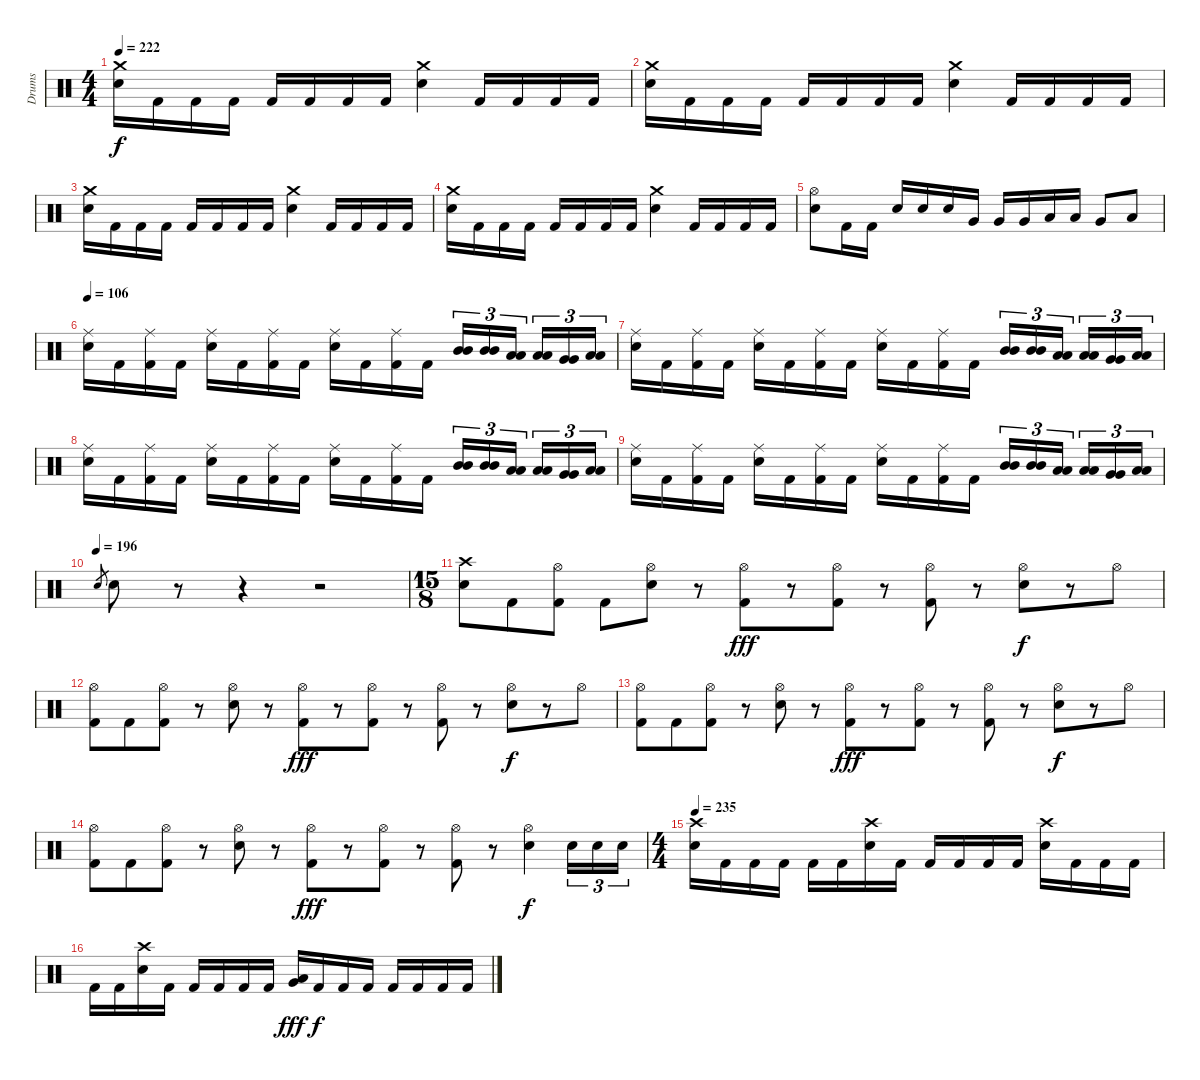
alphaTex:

\track ("Drums" "Drums") {instrument percussion}
\staff {score}
\articulation defaults
\ts (4 4)
\tempo 222
\clef neutral
\ks c
("Crash medium (hit)" "Snare (hit) 2").16{dy f} "Kick (hit) 2".16 "Kick (hit) 2".16 "Kick (hit) 2".16 "Kick (hit) 2".16 "Kick (hit) 2".16 "Kick (hit) 2".16 "Kick (hit) 2".16 ("Crash medium (hit)" "Snare (hit) 2").4 "Kick (hit) 2".16 "Kick (hit) 2".16 "Kick (hit) 2".16 "Kick (hit) 2".16 |
("Crash medium (hit)" "Snare (hit) 2").16 "Kick (hit) 2".16 "Kick (hit) 2".16 "Kick (hit) 2".16 "Kick (hit) 2".16 "Kick (hit) 2".16 "Kick (hit) 2".16 "Kick (hit) 2".16 ("Crash medium (hit)" "Snare (hit) 2").4 "Kick (hit) 2".16 "Kick (hit) 2".16 "Kick (hit) 2".16 "Kick (hit) 2".16 |
("Crash medium (hit)" "Snare (hit) 2").16 "Kick (hit) 2".16 "Kick (hit) 2".16 "Kick (hit) 2".16 "Kick (hit) 2".16 "Kick (hit) 2".16 "Kick (hit) 2".16 "Kick (hit) 2".16 ("Crash medium (hit)" "Snare (hit) 2").4 "Kick (hit) 2".16 "Kick (hit) 2".16 "Kick (hit) 2".16 "Kick (hit) 2".16 |
("Crash medium (hit)" "Snare (hit) 2").16 "Kick (hit) 2".16 "Kick (hit) 2".16 "Kick (hit) 2".16 "Kick (hit) 2".16 "Kick (hit) 2".16 "Kick (hit) 2".16 "Kick (hit) 2".16 ("Crash medium (hit)" "Snare (hit) 2").4 "Kick (hit) 2".16 "Kick (hit) 2".16 "Kick (hit) 2".16 "Kick (hit) 2".16 |
("Hi-Hat (open)" "Snare (hit) 2").8 "Kick (hit) 2".16 "Kick (hit) 2".16 "Snare (hit) 2".16 "Snare (hit) 2".16 "Snare (hit) 2".16 "Very Low Tom (hit)".16 "Very Low Tom (hit)".16 "Very Low Tom (hit)".16 "Low Floor Tom (hit)".16 "Low Floor Tom (hit)".16 "Very Low Tom (hit)".8 "Low Floor Tom (hit)".8 |
\tempo 106
("Ride (middle)" "Electric Snare (hit)").16 "Kick (hit) 2".16 ("Ride (middle)" "Kick (hit) 2").16 "Kick (hit) 2".16 ("Ride (middle)" "Electric Snare (hit)").16 "Kick (hit) 2".16 ("Ride (middle)" "Kick (hit) 2").16 "Kick (hit) 2".16 ("Ride (middle)" "Electric Snare (hit)").16 "Kick (hit) 2".16 ("Ride (middle)" "Kick (hit) 2").16 "Kick (hit) 2".16 ("Mid Tom (hit)" "Mid Tom (hit)").16{tu (3 2)} ("Mid Tom (hit)" "Mid Tom (hit)").16{tu (3 2)} ("Low Tom (hit)" "Low Tom (hit)").16{tu (3 2) beam splitsecondary} ("Low Tom (hit)" "Low Tom (hit)").16{tu (3 2)} ("Very Low Tom (hit)" "Very Low Tom (hit)").16{tu (3 2)} ("Low Floor Tom (hit)" "Low Floor Tom (hit)").16{tu (3 2)} |
("Ride (middle)" "Electric Snare (hit)").16 "Kick (hit) 2".16 ("Ride (middle)" "Kick (hit) 2").16 "Kick (hit) 2".16 ("Ride (middle)" "Electric Snare (hit)").16 "Kick (hit) 2".16 ("Ride (middle)" "Kick (hit) 2").16 "Kick (hit) 2".16 ("Ride (middle)" "Electric Snare (hit)").16 "Kick (hit) 2".16 ("Ride (middle)" "Kick (hit) 2").16 "Kick (hit) 2".16 ("Mid Tom (hit)" "Mid Tom (hit)").16{tu (3 2)} ("Mid Tom (hit)" "Mid Tom (hit)").16{tu (3 2)} ("Low Tom (hit)" "Low Tom (hit)").16{tu (3 2) beam splitsecondary} ("Low Tom (hit)" "Low Tom (hit)").16{tu (3 2)} ("Very Low Tom (hit)" "Very Low Tom (hit)").16{tu (3 2)} ("Low Floor Tom (hit)" "Low Floor Tom (hit)").16{tu (3 2)} |
("Ride (middle)" "Electric Snare (hit)").16 "Kick (hit) 2".16 ("Ride (middle)" "Kick (hit) 2").16 "Kick (hit) 2".16 ("Ride (middle)" "Electric Snare (hit)").16 "Kick (hit) 2".16 ("Ride (middle)" "Kick (hit) 2").16 "Kick (hit) 2".16 ("Ride (middle)" "Electric Snare (hit)").16 "Kick (hit) 2".16 ("Ride (middle)" "Kick (hit) 2").16 "Kick (hit) 2".16 ("Mid Tom (hit)" "Mid Tom (hit)").16{tu (3 2)} ("Mid Tom (hit)" "Mid Tom (hit)").16{tu (3 2)} ("Low Tom (hit)" "Low Tom (hit)").16{tu (3 2) beam splitsecondary} ("Low Tom (hit)" "Low Tom (hit)").16{tu (3 2)} ("Very Low Tom (hit)" "Very Low Tom (hit)").16{tu (3 2)} ("Low Floor Tom (hit)" "Low Floor Tom (hit)").16{tu (3 2)} |
("Ride (middle)" "Electric Snare (hit)").16 "Kick (hit) 2".16 ("Ride (middle)" "Kick (hit) 2").16 "Kick (hit) 2".16 ("Ride (middle)" "Electric Snare (hit)").16 "Kick (hit) 2".16 ("Ride (middle)" "Kick (hit) 2").16 "Kick (hit) 2".16 ("Ride (middle)" "Electric Snare (hit)").16 "Kick (hit) 2".16 ("Ride (middle)" "Kick (hit) 2").16 "Kick (hit) 2".16 ("Mid Tom (hit)" "Mid Tom (hit)").16{tu (3 2)} ("Mid Tom (hit)" "Mid Tom (hit)").16{tu (3 2)} ("Low Tom (hit)" "Low Tom (hit)").16{tu (3 2) beam splitsecondary} ("Low Tom (hit)" "Low Tom (hit)").16{tu (3 2)} ("Very Low Tom (hit)" "Very Low Tom (hit)").16{tu (3 2)} ("Low Floor Tom (hit)" "Low Floor Tom (hit)").16{tu (3 2)} |
\tempo (196)
"Snare (hit) 2".8{gr} "Snare (hit) 2".8 r.8 r.4 r.2 |
\ts (15 8)
("Crash high (hit)" "Snare (hit) 2").8 "Kick (hit) 2".8 ("Hi-Hat (open)" "Kick (hit) 2").8 "Kick (hit) 2".8 ("Hi-Hat (open)" "Snare (hit) 2").8 r.8 ("Hi-Hat (open)" "Kick (hit) 2").8{dy fff} r.8 ("Hi-Hat (open)" "Kick (hit) 2").8 r.8 ("Hi-Hat (open)" "Kick (hit) 2").8 r.8 ("Hi-Hat (open)" "Snare (hit) 2").8{dy f} r.8 "Hi-Hat (open)".8 |
("Hi-Hat (open)" "Kick (hit) 2").8 "Kick (hit) 2".8 ("Hi-Hat (open)" "Kick (hit) 2").8 r.8 ("Hi-Hat (open)" "Snare (hit) 2").8 r.8 ("Hi-Hat (open)" "Kick (hit) 2").8{dy fff} r.8 ("Hi-Hat (open)" "Kick (hit) 2").8 r.8 ("Hi-Hat (open)" "Kick (hit) 2").8 r.8 ("Hi-Hat (open)" "Snare (hit) 2").8{dy f} r.8 "Hi-Hat (open)".8 |
("Hi-Hat (open)" "Kick (hit) 2").8 "Kick (hit) 2".8 ("Hi-Hat (open)" "Kick (hit) 2").8 r.8 ("Hi-Hat (open)" "Snare (hit) 2").8 r.8 ("Hi-Hat (open)" "Kick (hit) 2").8{dy fff} r.8 ("Hi-Hat (open)" "Kick (hit) 2").8 r.8 ("Hi-Hat (open)" "Kick (hit) 2").8 r.8 ("Hi-Hat (open)" "Snare (hit) 2").8{dy f} r.8 "Hi-Hat (open)".8 |
("Hi-Hat (open)" "Kick (hit) 2").8 "Kick (hit) 2".8 ("Hi-Hat (open)" "Kick (hit) 2").8 r.8 ("Hi-Hat (open)" "Snare (hit) 2").8 r.8 ("Hi-Hat (open)" "Kick (hit) 2").8{dy fff} r.8 ("Hi-Hat (open)" "Kick (hit) 2").8 r.8 ("Hi-Hat (open)" "Kick (hit) 2").8 r.8 ("Hi-Hat (open)" "Snare (hit) 2").4{dy f} "Snare (hit) 2".16{tu (3 2)} "Snare (hit) 2".16{tu (3 2)} "Snare (hit) 2".16{tu (3 2)} |
\ts (4 4)
\tempo 235
("Crash high (hit)" "Snare (hit) 2").16 "Kick (hit) 2".16 "Kick (hit) 2".16 "Kick (hit) 2".16 "Kick (hit) 2".16 "Kick (hit) 2".16 ("Crash high (hit)" "Snare (hit) 2").16 "Kick (hit) 2".16 "Kick (hit) 2".16 "Kick (hit) 2".16 "Kick (hit) 2".16 "Kick (hit) 2".16 ("Crash high (hit)" "Snare (hit) 2").16 "Kick (hit) 2".16 "Kick (hit) 2".16 "Kick (hit) 2".16 |
"Kick (hit) 2".16 "Kick (hit) 2".16 ("Crash high (hit)" "Snare (hit) 2").16 "Kick (hit) 2".16 "Kick (hit) 2".16 "Kick (hit) 2".16 "Kick (hit) 2".16 "Kick (hit) 2".16 ("Very Low Tom (hit)" "Low Floor Tom (hit)").16{dy fff} "Kick (hit) 2".16{dy f} "Kick (hit) 2".16 "Kick (hit) 2".16 "Kick (hit) 2".16 "Kick (hit) 2".16 "Kick (hit) 2".16 "Kick (hit) 2".16
